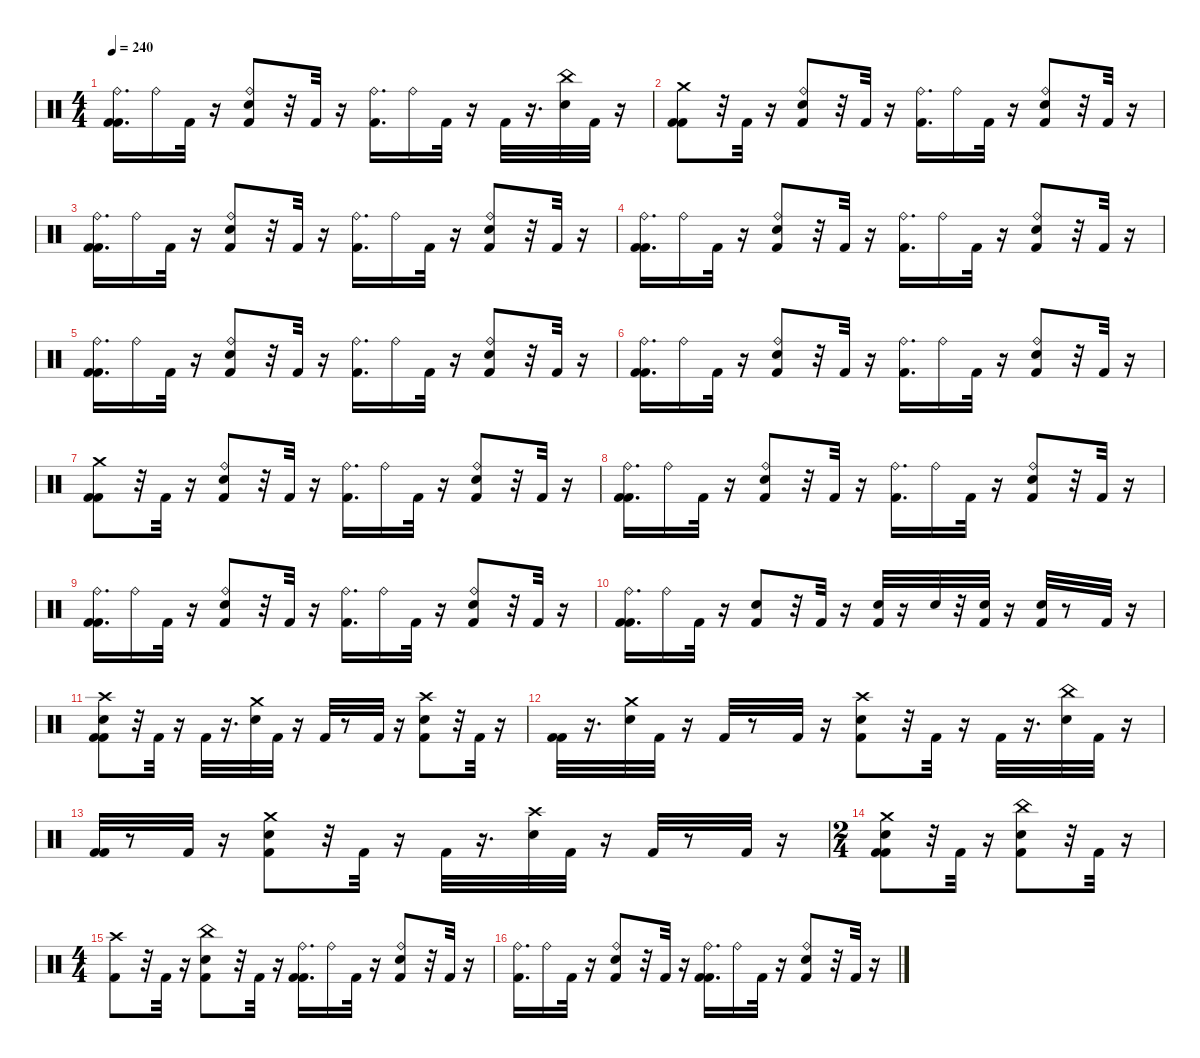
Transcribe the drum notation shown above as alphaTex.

\defaultSystemsLayout 4
\hideDynamics
\bracketExtendMode nobrackets
\singleTrackTrackNamePolicy hidden
\multiTrackTrackNamePolicy hidden
\otherSystemsTrackNameOrientation horizontal
\track ("Drums" "drm.") {instrument percussion}
\staff {score}
\articulation defaults
\ts (4 4)
\tempo 240
\clef neutral
\ks c
("Kick (hit) 2" "Ride (bell)" "Kick (hit) 2").16{d dy f} "Ride (bell)".16{dy fff} "Kick (hit) 2".32{dy f} r.16 ("Snare (hit) 2" "Kick (hit) 2" "Ride (bell)").8{dy fff} r.32 "Kick (hit) 2".32{dy f} r.16 ("Kick (hit) 2" "Ride (bell)").16{d} "Ride (bell)".16{dy fff} "Kick (hit) 2".32{dy f} r.16 "Kick (hit) 2".32 r.16{d} ("Snare (hit) 2" "China (hit)").32{dy fff} "Kick (hit) 2".32{dy f} r.16 |
("Crash medium (hit)" "Kick (hit) 2" "Kick (hit) 2").8{dy fff} r.32 "Kick (hit) 2".32{dy f} r.16 ("Snare (hit) 2" "Kick (hit) 2" "Ride (bell)").8{dy fff} r.32 "Kick (hit) 2".32{dy f} r.16 ("Ride (bell)" "Kick (hit) 2").16{d dy fff} "Ride (bell)".16 "Kick (hit) 2".32{dy f} r.16 ("Snare (hit) 2" "Kick (hit) 2" "Ride (bell)").8{dy fff} r.32 "Kick (hit) 2".32{dy f} r.16 |
("Kick (hit) 2" "Ride (bell)" "Kick (hit) 2").16{d} "Ride (bell)".16{dy fff} "Kick (hit) 2".32{dy f} r.16 ("Snare (hit) 2" "Ride (bell)" "Kick (hit) 2").8{dy fff} r.32 "Kick (hit) 2".32{dy f} r.16 ("Kick (hit) 2" "Ride (bell)").16{d} "Ride (bell)".16{dy fff} "Kick (hit) 2".32{dy f} r.16 ("Ride (bell)" "Snare (hit) 2" "Kick (hit) 2").8{dy fff} r.32 "Kick (hit) 2".32{dy f} r.16 |
("Kick (hit) 2" "Kick (hit) 2" "Ride (bell)").16{d} "Ride (bell)".16{dy fff} "Kick (hit) 2".32{dy f} r.16 ("Snare (hit) 2" "Ride (bell)" "Kick (hit) 2").8{dy fff} r.32 "Kick (hit) 2".32{dy f} r.16 ("Ride (bell)" "Kick (hit) 2").16{d dy fff} "Ride (bell)".16 "Kick (hit) 2".32{dy f} r.16 ("Ride (bell)" "Snare (hit) 2" "Kick (hit) 2").8{dy fff} r.32 "Kick (hit) 2".32{dy f} r.16 |
("Kick (hit) 2" "Kick (hit) 2" "Ride (bell)").16{d} "Ride (bell)".16{dy fff} "Kick (hit) 2".32{dy f} r.16 ("Snare (hit) 2" "Ride (bell)" "Kick (hit) 2").8{dy fff} r.32 "Kick (hit) 2".32{dy f} r.16 ("Ride (bell)" "Kick (hit) 2").16{d dy fff} "Ride (bell)".16 "Kick (hit) 2".32{dy f} r.16 ("Kick (hit) 2" "Snare (hit) 2" "Ride (bell)").8 r.32 "Kick (hit) 2".32 r.16 |
("Kick (hit) 2" "Kick (hit) 2" "Ride (bell)").16{d} "Ride (bell)".16{dy fff} "Kick (hit) 2".32{dy f} r.16 ("Ride (bell)" "Kick (hit) 2" "Snare (hit) 2").8{dy fff} r.32 "Kick (hit) 2".32{dy f} r.16 ("Kick (hit) 2" "Ride (bell)").16{d} "Ride (bell)".16{dy fff} "Kick (hit) 2".32{dy f} r.16 ("Snare (hit) 2" "Kick (hit) 2" "Ride (bell)").8{dy fff} r.32 "Kick (hit) 2".32{dy f} r.16 |
("Crash medium (hit)" "Kick (hit) 2" "Kick (hit) 2").8{dy fff} r.32 "Kick (hit) 2".32{dy f} r.16 ("Ride (bell)" "Snare (hit) 2" "Kick (hit) 2").8{dy fff} r.32 "Kick (hit) 2".32{dy f} r.16 ("Ride (bell)" "Kick (hit) 2").16{d dy fff} "Ride (bell)".16 "Kick (hit) 2".32{dy f} r.16 ("Snare (hit) 2" "Kick (hit) 2" "Ride (bell)").8{dy fff} r.32 "Kick (hit) 2".32{dy f} r.16 |
("Ride (bell)" "Kick (hit) 2" "Kick (hit) 2").16{d dy fff} "Ride (bell)".16 "Kick (hit) 2".32{dy f} r.16 ("Snare (hit) 2" "Kick (hit) 2" "Ride (bell)").8{dy fff} r.32 "Kick (hit) 2".32{dy f} r.16 ("Ride (bell)" "Kick (hit) 2").16{d dy fff} "Ride (bell)".16 "Kick (hit) 2".32{dy f} r.16 ("Ride (bell)" "Kick (hit) 2" "Snare (hit) 2").8{dy fff} r.32 "Kick (hit) 2".32{dy f} r.16 |
("Kick (hit) 2" "Kick (hit) 2" "Ride (bell)").16{d} "Ride (bell)".16{dy fff} "Kick (hit) 2".32{dy f} r.16 ("Snare (hit) 2" "Kick (hit) 2" "Ride (bell)").8{dy fff} r.32 "Kick (hit) 2".32{dy f} r.16 ("Kick (hit) 2" "Ride (bell)").16{d} "Ride (bell)".16{dy fff} "Kick (hit) 2".32{dy f} r.16 ("Ride (bell)" "Kick (hit) 2" "Snare (hit) 2").8{dy fff} r.32 "Kick (hit) 2".32{dy f} r.16 |
("Kick (hit) 2" "Ride (bell)" "Kick (hit) 2").16{d} "Ride (bell)".16{dy fff} "Kick (hit) 2".32{dy f} r.16 ("Snare (hit) 2" "Kick (hit) 2").8{dy fff} r.32 "Kick (hit) 2".32{dy f} r.16 ("Snare (hit) 2" "Kick (hit) 2").32 r.16 "Snare (hit) 2".32 r.32 ("Snare (hit) 2" "Kick (hit) 2").32 r.16 ("Snare (hit) 2" "Kick (hit) 2").32 r.8 "Kick (hit) 2".32 r.16 |
("Kick (hit) 2" "Kick (hit) 2" "Snare (hit) 2" "Crash high (hit)").8 r.32 "Kick (hit) 2".32 r.16 "Kick (hit) 2".32 r.16{d} ("Snare (hit) 2" "Crash medium (hit)").32{dy fff} "Kick (hit) 2".32{dy f} r.16 "Kick (hit) 2".32 r.8 "Kick (hit) 2".32 r.16 ("Kick (hit) 2" "Crash high (hit)" "Snare (hit) 2").8 r.32 "Kick (hit) 2".32 r.16 |
("Kick (hit) 2" "Kick (hit) 2").32 r.16{d} ("Crash medium (hit)" "Snare (hit) 2").32{dy fff} "Kick (hit) 2".32{dy f} r.16 "Kick (hit) 2".32 r.8 "Kick (hit) 2".32 r.16 ("Crash high (hit)" "Kick (hit) 2" "Snare (hit) 2").8{dy fff} r.32 "Kick (hit) 2".32{dy f} r.16 "Kick (hit) 2".32 r.16{d} ("China (hit)" "Snare (hit) 2").32{dy fff} "Kick (hit) 2".32{dy f} r.16 |
("Kick (hit) 2" "Kick (hit) 2").32 r.8 "Kick (hit) 2".32 r.16 ("Snare (hit) 2" "Crash medium (hit)" "Kick (hit) 2").8{dy fff} r.32 "Kick (hit) 2".32{dy f} r.16 "Kick (hit) 2".32 r.16{d} ("Snare (hit) 2" "Crash high (hit)").32{dy fff} "Kick (hit) 2".32{dy f} r.16 "Kick (hit) 2".32 r.8 "Kick (hit) 2".32 r.16 |
\ts (2 4)
("Kick (hit) 2" "Snare (hit) 2" "Kick (hit) 2" "Crash medium (hit)").8 r.32 "Kick (hit) 2".32 r.16 ("China (hit)" "Snare (hit) 2" "Kick (hit) 2").8{dy fff} r.32 "Kick (hit) 2".32{dy f} r.16 |
\ts (4 4)
("Kick (hit) 2" "Crash high (hit)").8 r.32 "Kick (hit) 2".32 r.16 ("Kick (hit) 2" "Snare (hit) 2" "China (hit)").8 r.32 "Kick (hit) 2".32 r.16 ("Ride (bell)" "Kick (hit) 2" "Kick (hit) 2").16{d dy fff} "Ride (bell)".16 "Kick (hit) 2".32{dy f} r.16 ("Ride (bell)" "Kick (hit) 2" "Snare (hit) 2").8{dy fff} r.32 "Kick (hit) 2".32{dy f} r.16 |
("Kick (hit) 2" "Ride (bell)").16{d} "Ride (bell)".16{dy fff} "Kick (hit) 2".32{dy f} r.16 ("Snare (hit) 2" "Ride (bell)" "Kick (hit) 2").8{dy fff} r.32 "Kick (hit) 2".32{dy f} r.16 ("Ride (bell)" "Kick (hit) 2" "Kick (hit) 2").16{d dy fff} "Ride (bell)".16 "Kick (hit) 2".32{dy f} r.16 ("Ride (bell)" "Snare (hit) 2" "Kick (hit) 2").8{dy fff} r.32 "Kick (hit) 2".32{dy f} r.16
